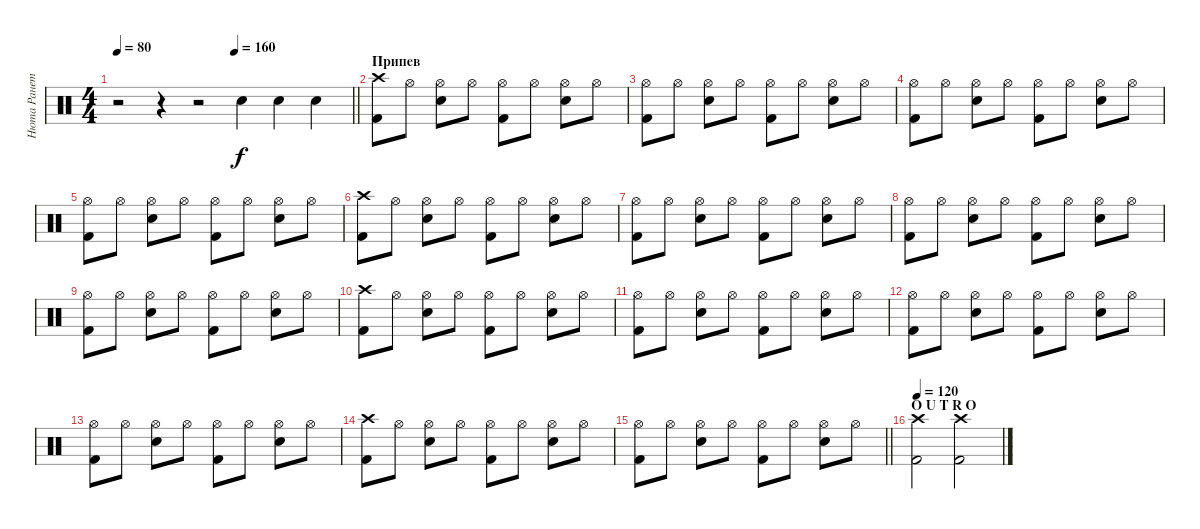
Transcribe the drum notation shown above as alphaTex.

\track ("Нюта Ранетка" "Нюта Ранет") {instrument percussion}
\staff {score}
\articulation defaults
\ts (4 4)
\tempo 80
\tempo (160 0.5)
\clef neutral
\barLineRight lightlight
\ks c
r.2{dy f} r.4 r.2 "Snare (hit) 2".4 "Snare (hit) 2".4 "Snare (hit) 2".4 |
\section ("" "Припев")
("Crash high (hit)" "Kick (hit) 2").8 "Hi-Hat (open)".8 ("Hi-Hat (open)" "Snare (hit) 2").8 "Hi-Hat (open)".8 ("Hi-Hat (open)" "Kick (hit) 2").8 "Hi-Hat (open)".8 ("Hi-Hat (open)" "Snare (hit) 2").8 "Hi-Hat (open)".8 |
("Hi-Hat (open)" "Kick (hit) 2").8 "Hi-Hat (open)".8 ("Hi-Hat (open)" "Snare (hit) 2").8 "Hi-Hat (open)".8 ("Hi-Hat (open)" "Kick (hit) 2").8 "Hi-Hat (open)".8 ("Hi-Hat (open)" "Snare (hit) 2").8 "Hi-Hat (open)".8 |
("Hi-Hat (open)" "Kick (hit) 2").8 "Hi-Hat (open)".8 ("Hi-Hat (open)" "Snare (hit) 2").8 "Hi-Hat (open)".8 ("Hi-Hat (open)" "Kick (hit) 2").8 "Hi-Hat (open)".8 ("Hi-Hat (open)" "Snare (hit) 2").8 "Hi-Hat (open)".8 |
("Hi-Hat (open)" "Kick (hit) 2").8 "Hi-Hat (open)".8 ("Hi-Hat (open)" "Snare (hit) 2").8 "Hi-Hat (open)".8 ("Hi-Hat (open)" "Kick (hit) 2").8 "Hi-Hat (open)".8 ("Hi-Hat (open)" "Snare (hit) 2").8 "Hi-Hat (open)".8 |
("Crash high (hit)" "Kick (hit) 2").8 "Hi-Hat (open)".8 ("Hi-Hat (open)" "Snare (hit) 2").8 "Hi-Hat (open)".8 ("Hi-Hat (open)" "Kick (hit) 2").8 "Hi-Hat (open)".8 ("Hi-Hat (open)" "Snare (hit) 2").8 "Hi-Hat (open)".8 |
("Hi-Hat (open)" "Kick (hit) 2").8 "Hi-Hat (open)".8 ("Hi-Hat (open)" "Snare (hit) 2").8 "Hi-Hat (open)".8 ("Hi-Hat (open)" "Kick (hit) 2").8 "Hi-Hat (open)".8 ("Hi-Hat (open)" "Snare (hit) 2").8 "Hi-Hat (open)".8 |
("Hi-Hat (open)" "Kick (hit) 2").8 "Hi-Hat (open)".8 ("Hi-Hat (open)" "Snare (hit) 2").8 "Hi-Hat (open)".8 ("Hi-Hat (open)" "Kick (hit) 2").8 "Hi-Hat (open)".8 ("Hi-Hat (open)" "Snare (hit) 2").8 "Hi-Hat (open)".8 |
("Hi-Hat (open)" "Kick (hit) 2").8 "Hi-Hat (open)".8 ("Hi-Hat (open)" "Snare (hit) 2").8 "Hi-Hat (open)".8 ("Hi-Hat (open)" "Kick (hit) 2").8 "Hi-Hat (open)".8 ("Hi-Hat (open)" "Snare (hit) 2").8 "Hi-Hat (open)".8 |
("Crash high (hit)" "Kick (hit) 2").8 "Hi-Hat (open)".8 ("Hi-Hat (open)" "Snare (hit) 2").8 "Hi-Hat (open)".8 ("Hi-Hat (open)" "Kick (hit) 2").8 "Hi-Hat (open)".8 ("Hi-Hat (open)" "Snare (hit) 2").8 "Hi-Hat (open)".8 |
("Hi-Hat (open)" "Kick (hit) 2").8 "Hi-Hat (open)".8 ("Hi-Hat (open)" "Snare (hit) 2").8 "Hi-Hat (open)".8 ("Hi-Hat (open)" "Kick (hit) 2").8 "Hi-Hat (open)".8 ("Hi-Hat (open)" "Snare (hit) 2").8 "Hi-Hat (open)".8 |
("Hi-Hat (open)" "Kick (hit) 2").8 "Hi-Hat (open)".8 ("Hi-Hat (open)" "Snare (hit) 2").8 "Hi-Hat (open)".8 ("Hi-Hat (open)" "Kick (hit) 2").8 "Hi-Hat (open)".8 ("Hi-Hat (open)" "Snare (hit) 2").8 "Hi-Hat (open)".8 |
("Hi-Hat (open)" "Kick (hit) 2").8 "Hi-Hat (open)".8 ("Hi-Hat (open)" "Snare (hit) 2").8 "Hi-Hat (open)".8 ("Hi-Hat (open)" "Kick (hit) 2").8 "Hi-Hat (open)".8 ("Hi-Hat (open)" "Snare (hit) 2").8 "Hi-Hat (open)".8 |
("Crash high (hit)" "Kick (hit) 2").8 "Hi-Hat (open)".8 ("Hi-Hat (open)" "Snare (hit) 2").8 "Hi-Hat (open)".8 ("Hi-Hat (open)" "Kick (hit) 2").8 "Hi-Hat (open)".8 ("Hi-Hat (open)" "Snare (hit) 2").8 "Hi-Hat (open)".8 |
\barLineRight lightlight
("Hi-Hat (open)" "Kick (hit) 2").8 "Hi-Hat (open)".8 ("Hi-Hat (open)" "Snare (hit) 2").8 "Hi-Hat (open)".8 ("Hi-Hat (open)" "Kick (hit) 2").8 "Hi-Hat (open)".8 ("Hi-Hat (open)" "Snare (hit) 2").8 "Hi-Hat (open)".8 |
\section ("" "O U T R O")
\tempo 120
("Crash high (hit)" "Kick (hit) 2").2 ("Crash high (hit)" "Kick (hit) 2").2
